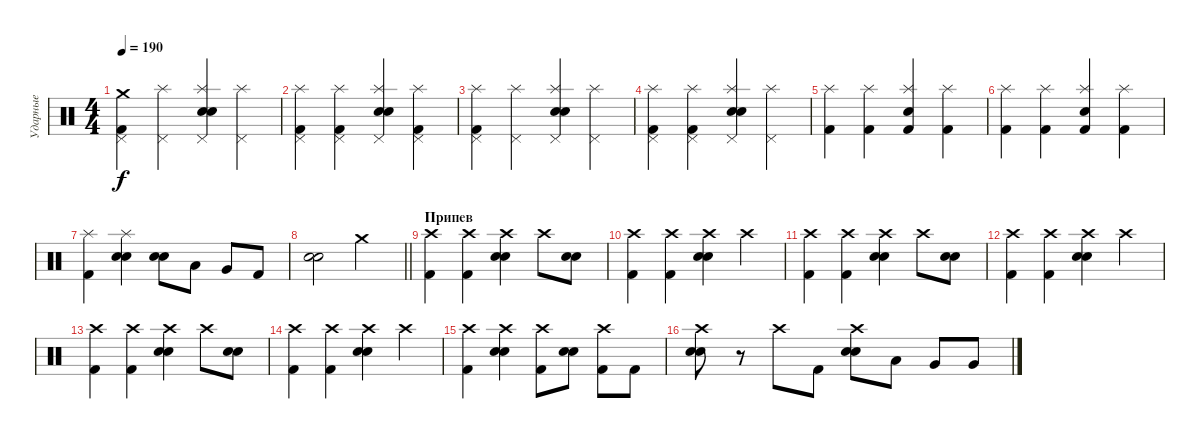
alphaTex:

\track ("Ударные" "Ударные") {instrument percussion}
\staff {score}
\articulation defaults
\ts (4 4)
\tempo 190
\clef neutral
\ks c
("Crash medium (hit)" "Pedal Hi-Hat (hit)" "Kick (hit) 2").4{dy f} ("Splash (hit)" "Pedal Hi-Hat (hit)").4 ("Splash (hit)" "Pedal Hi-Hat (hit)" "Electric Snare (hit)" "Snare (hit) 2").4 ("Splash (hit)" "Pedal Hi-Hat (hit)").4 |
("Splash (hit)" "Pedal Hi-Hat (hit)" "Kick (hit) 2").4 ("Splash (hit)" "Pedal Hi-Hat (hit)" "Kick (hit) 2").4 ("Splash (hit)" "Pedal Hi-Hat (hit)" "Electric Snare (hit)" "Snare (hit) 2").4 ("Splash (hit)" "Pedal Hi-Hat (hit)" "Kick (hit) 2").4 |
("Splash (hit)" "Pedal Hi-Hat (hit)" "Kick (hit) 2").4 ("Splash (hit)" "Pedal Hi-Hat (hit)").4 ("Splash (hit)" "Pedal Hi-Hat (hit)" "Electric Snare (hit)" "Snare (hit) 2").4 ("Splash (hit)" "Pedal Hi-Hat (hit)").4 |
("Splash (hit)" "Pedal Hi-Hat (hit)" "Kick (hit) 2").4 ("Splash (hit)" "Pedal Hi-Hat (hit)" "Kick (hit) 2").4 ("Splash (hit)" "Pedal Hi-Hat (hit)" "Electric Snare (hit)" "Snare (hit) 2").4 ("Splash (hit)" "Pedal Hi-Hat (hit)").4 |
("Splash (hit)" "Kick (hit) 2").4 ("Splash (hit)" "Kick (hit) 2").4 ("Splash (hit)" "Electric Snare (hit)" "Kick (hit) 2").4 ("Splash (hit)" "Kick (hit) 2").4 |
("Splash (hit)" "Kick (hit) 2").4 ("Splash (hit)" "Kick (hit) 2").4 ("Splash (hit)" "Electric Snare (hit)" "Kick (hit) 2").4 ("Splash (hit)" "Kick (hit) 2").4 |
("Splash (hit)" "Kick (hit) 2").4 ("Splash (hit)" "Electric Snare (hit)" "Snare (hit) 2").4 ("Electric Snare (hit)" "Snare (hit) 2").8 "Low Tom (hit)".8 "Very Low Tom (hit)".8 "Kick (hit) 2".8 |
\barLineRight lightlight
("Electric Snare (hit)" "Snare (hit) 2").2 "Crash medium (hit)".2 |
\section ("" "Припев")
("Crash high (hit)" "Kick (hit) 2").4 ("Crash high (hit)" "Kick (hit) 2").4 ("Crash high (hit)" "Electric Snare (hit)" "Snare (hit) 2").4 "Crash high (hit)".8 ("Electric Snare (hit)" "Snare (hit) 2").8 |
("Crash high (hit)" "Kick (hit) 2").4 ("Crash high (hit)" "Kick (hit) 2").4 ("Crash high (hit)" "Electric Snare (hit)" "Snare (hit) 2").4 "Crash high (hit)".4 |
("Crash high (hit)" "Kick (hit) 2").4 ("Crash high (hit)" "Kick (hit) 2").4 ("Crash high (hit)" "Electric Snare (hit)" "Snare (hit) 2").4 "Crash high (hit)".8 ("Electric Snare (hit)" "Snare (hit) 2").8 |
("Crash high (hit)" "Kick (hit) 2").4 ("Crash high (hit)" "Kick (hit) 2").4 ("Crash high (hit)" "Electric Snare (hit)" "Snare (hit) 2").4 "Crash high (hit)".4 |
("Crash high (hit)" "Kick (hit) 2").4 ("Crash high (hit)" "Kick (hit) 2").4 ("Crash high (hit)" "Electric Snare (hit)" "Snare (hit) 2").4 "Crash high (hit)".8 ("Electric Snare (hit)" "Snare (hit) 2").8 |
("Crash high (hit)" "Kick (hit) 2").4 ("Crash high (hit)" "Kick (hit) 2").4 ("Crash high (hit)" "Electric Snare (hit)" "Snare (hit) 2").4 "Crash high (hit)".4 |
("Crash high (hit)" "Kick (hit) 2").4 ("Crash high (hit)" "Electric Snare (hit)" "Snare (hit) 2").4 ("Crash high (hit)" "Kick (hit) 2").8 ("Electric Snare (hit)" "Snare (hit) 2").8 ("Crash high (hit)" "Kick (hit) 2").8 "Kick (hit) 2".8 |
("Crash high (hit)" "Electric Snare (hit)" "Snare (hit) 2").8 r.8 "Crash high (hit)".8 "Kick (hit) 2".8 ("Crash high (hit)" "Electric Snare (hit)" "Snare (hit) 2").8 "Low Tom (hit)".8 "Very Low Tom (hit)".8 "Very Low Tom (hit)".8
